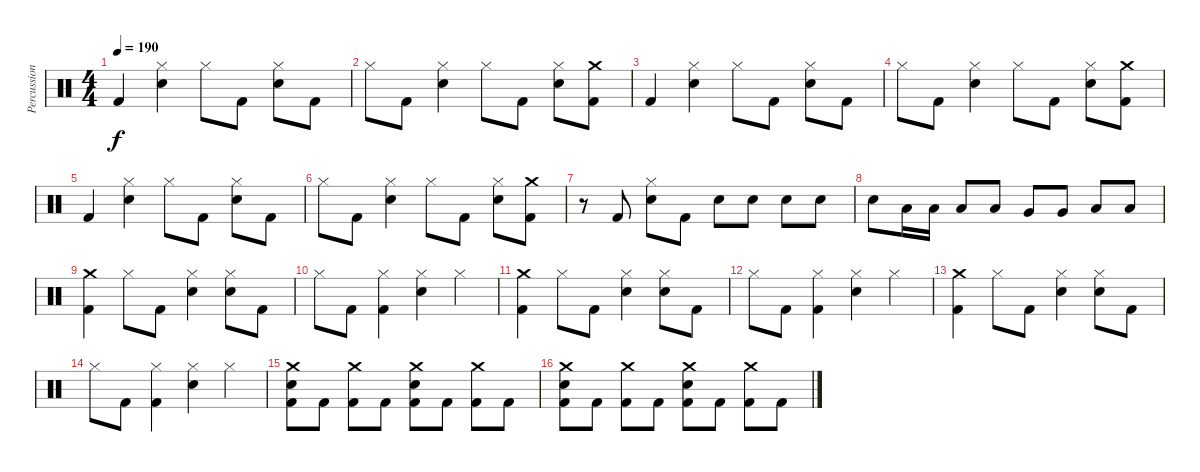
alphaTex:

\track ("Percussion" "Percussion") {instrument percussion}
\staff {score}
\articulation defaults
\ts (4 4)
\tempo 190
\clef neutral
\ks c "Kick (hit) 2".4{dy f}
("Hi-Hat (closed)" "Snare (hit) 2").4 "Hi-Hat (closed)".8 "Kick (hit) 2".8 ("Hi-Hat (closed)" "Snare (hit) 2").8 "Kick (hit) 2".8 |
"Hi-Hat (closed)".8 "Kick (hit) 2".8 ("Hi-Hat (closed)" "Snare (hit) 2").4 "Hi-Hat (closed)".8 "Kick (hit) 2".8 ("Hi-Hat (closed)" "Snare (hit) 2").8 ("Crash medium (hit)" "Kick (hit) 2").8 |
"Kick (hit) 2".4 ("Hi-Hat (closed)" "Snare (hit) 2").4 "Hi-Hat (closed)".8 "Kick (hit) 2".8 ("Hi-Hat (closed)" "Snare (hit) 2").8 "Kick (hit) 2".8 |
"Hi-Hat (closed)".8 "Kick (hit) 2".8 ("Hi-Hat (closed)" "Snare (hit) 2").4 "Hi-Hat (closed)".8 "Kick (hit) 2".8 ("Hi-Hat (closed)" "Snare (hit) 2").8 ("Crash medium (hit)" "Kick (hit) 2").8 |
"Kick (hit) 2".4 ("Hi-Hat (closed)" "Snare (hit) 2").4 "Hi-Hat (closed)".8 "Kick (hit) 2".8 ("Hi-Hat (closed)" "Snare (hit) 2").8 "Kick (hit) 2".8 |
"Hi-Hat (closed)".8 "Kick (hit) 2".8 ("Hi-Hat (closed)" "Snare (hit) 2").4 "Hi-Hat (closed)".8 "Kick (hit) 2".8 ("Hi-Hat (closed)" "Snare (hit) 2").8 ("Crash medium (hit)" "Kick (hit) 2").8 |
r.8 "Kick (hit) 2".8 ("Hi-Hat (closed)" "Snare (hit) 2").8 "Kick (hit) 2".8 "Snare (hit) 2".8 "Snare (hit) 2".8 "Snare (hit) 2".8 "Snare (hit) 2".8 |
"Snare (hit) 2".8 "Low Tom (hit)".16 "Low Tom (hit)".16 "Low Tom (hit)".8 "Low Tom (hit)".8 "Very Low Tom (hit)".8 "Very Low Tom (hit)".8 "Low Floor Tom (hit)".8 "Low Floor Tom (hit)".8 |
("Crash medium (hit)" "Kick (hit) 2").4 "Hi-Hat (closed)".8 "Kick (hit) 2".8 ("Hi-Hat (closed)" "Snare (hit) 2").4 ("Hi-Hat (closed)" "Snare (hit) 2").8 "Kick (hit) 2".8 |
"Hi-Hat (closed)".8 "Kick (hit) 2".8 ("Hi-Hat (closed)" "Kick (hit) 2").4 ("Hi-Hat (closed)" "Snare (hit) 2").4 "Hi-Hat (closed)".4 |
("Crash medium (hit)" "Kick (hit) 2").4 "Hi-Hat (closed)".8 "Kick (hit) 2".8 ("Hi-Hat (closed)" "Snare (hit) 2").4 ("Hi-Hat (closed)" "Snare (hit) 2").8 "Kick (hit) 2".8 |
"Hi-Hat (closed)".8 "Kick (hit) 2".8 ("Hi-Hat (closed)" "Kick (hit) 2").4 ("Hi-Hat (closed)" "Snare (hit) 2").4 "Hi-Hat (closed)".4 |
("Crash medium (hit)" "Kick (hit) 2").4 "Hi-Hat (closed)".8 "Kick (hit) 2".8 ("Hi-Hat (closed)" "Snare (hit) 2").4 ("Hi-Hat (closed)" "Snare (hit) 2").8 "Kick (hit) 2".8 |
"Hi-Hat (closed)".8 "Kick (hit) 2".8 ("Hi-Hat (closed)" "Kick (hit) 2").4 ("Hi-Hat (closed)" "Snare (hit) 2").4 "Hi-Hat (closed)".4 |
("Crash medium (hit)" "Snare (hit) 2" "Kick (hit) 2").8 "Kick (hit) 2".8 ("Crash medium (hit)" "Kick (hit) 2").8 "Kick (hit) 2".8 ("Crash medium (hit)" "Snare (hit) 2" "Kick (hit) 2").8 "Kick (hit) 2".8 ("Crash medium (hit)" "Kick (hit) 2").8 "Kick (hit) 2".8 |
("Crash medium (hit)" "Snare (hit) 2" "Kick (hit) 2").8 "Kick (hit) 2".8 ("Crash medium (hit)" "Kick (hit) 2").8 "Kick (hit) 2".8 ("Crash medium (hit)" "Snare (hit) 2" "Kick (hit) 2").8 "Kick (hit) 2".8 ("Crash medium (hit)" "Kick (hit) 2").8 "Kick (hit) 2".8
